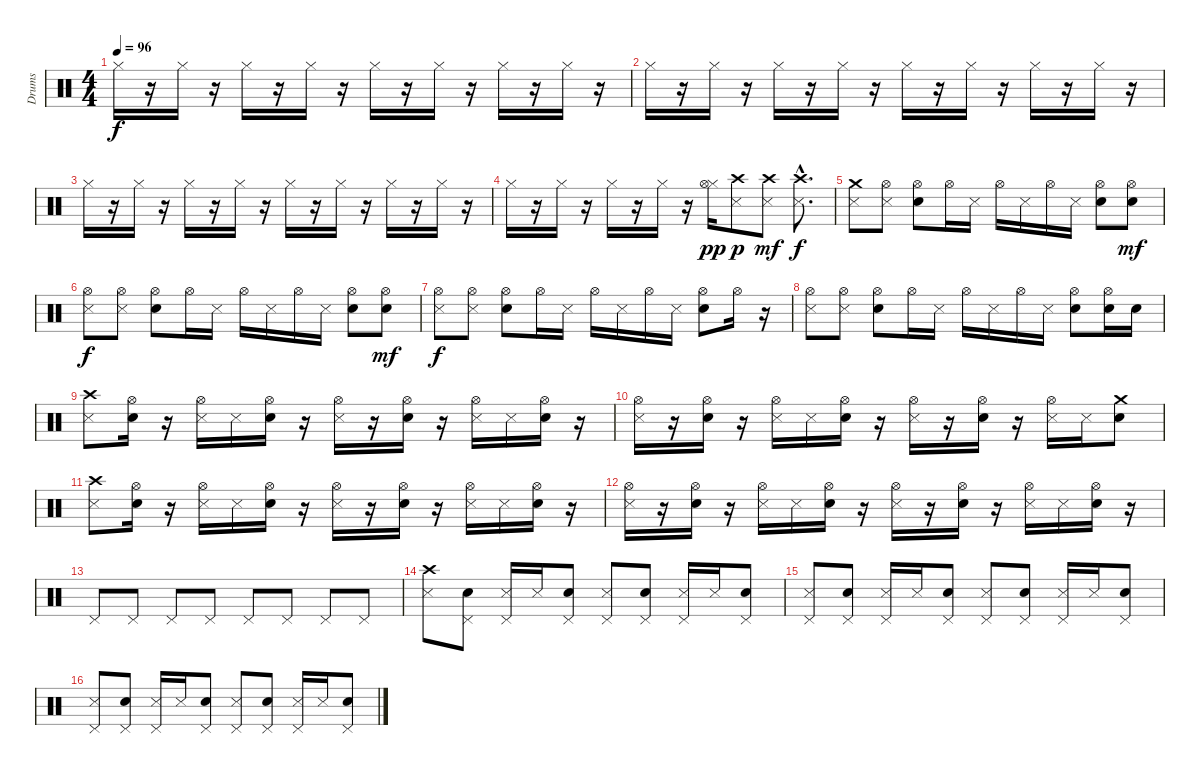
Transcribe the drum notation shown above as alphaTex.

\track ("Drums" "Drums") {instrument percussion}
\staff {score}
\articulation defaults
\ts (4 4)
\tempo 96
\clef neutral
\ks c "Hi-Hat (closed)".16{dy f}
r.16 "Hi-Hat (closed)".16 r.16 "Hi-Hat (closed)".16 r.16 "Hi-Hat (closed)".16 r.16 "Hi-Hat (closed)".16 r.16 "Hi-Hat (closed)".16 r.16 "Hi-Hat (closed)".16 r.16 "Hi-Hat (closed)".16 r.16 |
"Hi-Hat (closed)".16 r.16 "Hi-Hat (closed)".16 r.16 "Hi-Hat (closed)".16 r.16 "Hi-Hat (closed)".16 r.16 "Hi-Hat (closed)".16 r.16 "Hi-Hat (closed)".16 r.16 "Hi-Hat (closed)".16 r.16 "Hi-Hat (closed)".16 r.16 |
"Hi-Hat (closed)".16 r.16 "Hi-Hat (closed)".16 r.16 "Hi-Hat (closed)".16 r.16 "Hi-Hat (closed)".16 r.16 "Hi-Hat (closed)".16 r.16 "Hi-Hat (closed)".16 r.16 "Hi-Hat (closed)".16 r.16 "Hi-Hat (closed)".16 r.16 |
"Hi-Hat (closed)".16 r.16 "Hi-Hat (closed)".16 r.16 "Hi-Hat (closed)".16 r.16 "Hi-Hat (closed)".16 r.16 ("Hi-Hat (closed)" "Hi-Hat (open)").16{dy pp} ("Metronome (hit)" "Crash high (hit)").8{dy p} ("Metronome (hit)" "Crash high (hit)").8{dy mf} ("Metronome (hit)"{hac} "Crash high (hit)"{hac}).8{d dy f} |
("Metronome (hit)" "Crash medium (hit)").8 ("Metronome (hit)" "Hi-Hat (open)").8 ("Electric Snare (hit)" "Hi-Hat (open)").8 "Hi-Hat (open)".16 "Metronome (hit)".16 "Hi-Hat (open)".16 "Metronome (hit)".16 "Hi-Hat (open)".16 "Metronome (hit)".16 ("Electric Snare (hit)" "Hi-Hat (open)").8 ("Hi-Hat (open)" "Electric Snare (hit)").8{dy mf} |
("Metronome (hit)" "Hi-Hat (open)").8{dy f} ("Metronome (hit)" "Hi-Hat (open)").8 ("Electric Snare (hit)" "Hi-Hat (open)").8 "Hi-Hat (open)".16 "Metronome (hit)".16 "Hi-Hat (open)".16 "Metronome (hit)".16 "Hi-Hat (open)".16 "Metronome (hit)".16 ("Electric Snare (hit)" "Hi-Hat (open)").8 ("Electric Snare (hit)" "Hi-Hat (open)").8{dy mf} |
("Metronome (hit)" "Hi-Hat (open)").8{dy f} ("Hi-Hat (open)" "Metronome (hit)").8 ("Hi-Hat (open)" "Electric Snare (hit)").8 "Hi-Hat (open)".16 "Metronome (hit)".16 "Hi-Hat (open)".16 "Metronome (hit)".16 "Hi-Hat (open)".16 "Metronome (hit)".16 ("Electric Snare (hit)" "Hi-Hat (open)").8 "Hi-Hat (open)".16 r.16 |
("Hi-Hat (open)" "Metronome (hit)").8 ("Metronome (hit)" "Hi-Hat (open)").8 ("Electric Snare (hit)" "Hi-Hat (open)").8 "Hi-Hat (open)".16 "Metronome (hit)".16 "Hi-Hat (open)".16 "Metronome (hit)".16 "Hi-Hat (open)".16 "Metronome (hit)".16 ("Electric Snare (hit)" "Hi-Hat (open)").8 ("Electric Snare (hit)" "Hi-Hat (open)").16 "Electric Snare (hit)".16 |
("Metronome (hit)" "Crash high (hit)").8 ("Hi-Hat (open)" "Electric Snare (hit)").16 r.16 ("Metronome (hit)" "Hi-Hat (open)").16 "Metronome (hit)".16 ("Electric Snare (hit)" "Hi-Hat (open)").16 r.16 ("Metronome (hit)" "Hi-Hat (open)").16 r.16 ("Electric Snare (hit)" "Hi-Hat (open)").16 r.16 ("Metronome (hit)" "Hi-Hat (open)").16 "Metronome (hit)".16 ("Electric Snare (hit)" "Hi-Hat (open)").16 r.16 |
("Metronome (hit)" "Hi-Hat (open)").16 r.16 ("Electric Snare (hit)" "Hi-Hat (open)").16 r.16 ("Hi-Hat (open)" "Metronome (hit)").16 "Metronome (hit)".16 ("Hi-Hat (open)" "Electric Snare (hit)").16 r.16 ("Metronome (hit)" "Hi-Hat (open)").16 r.16 ("Hi-Hat (open)" "Electric Snare (hit)").16 r.16 ("Hi-Hat (open)" "Metronome (hit)").16 "Metronome (hit)".16 ("Electric Snare (hit)" "Crash medium (hit)").8 |
("Metronome (hit)" "Crash high (hit)").8 ("Hi-Hat (open)" "Electric Snare (hit)").16 r.16 ("Hi-Hat (open)" "Metronome (hit)").16 "Metronome (hit)".16 ("Hi-Hat (open)" "Electric Snare (hit)").16 r.16 ("Hi-Hat (open)" "Metronome (hit)").16 r.16 ("Hi-Hat (open)" "Electric Snare (hit)").16 r.16 ("Metronome (hit)" "Hi-Hat (open)").16 "Metronome (hit)".16 ("Hi-Hat (open)" "Electric Snare (hit)").16 r.16 |
("Hi-Hat (open)" "Metronome (hit)").16 r.16 ("Electric Snare (hit)" "Hi-Hat (open)").16 r.16 ("Metronome (hit)" "Hi-Hat (open)").16 "Metronome (hit)".16 ("Electric Snare (hit)" "Hi-Hat (open)").16 r.16 ("Hi-Hat (open)" "Metronome (hit)").16 r.16 ("Hi-Hat (open)" "Electric Snare (hit)").16 r.16 ("Hi-Hat (open)" "Metronome (hit)").16 "Metronome (hit)".16 ("Hi-Hat (open)" "Electric Snare (hit)").16 r.16 |
"Pedal Hi-Hat (hit)".8 "Pedal Hi-Hat (hit)".8 "Pedal Hi-Hat (hit)".8 "Pedal Hi-Hat (hit)".8 "Pedal Hi-Hat (hit)".8 "Pedal Hi-Hat (hit)".8 "Pedal Hi-Hat (hit)".8 "Pedal Hi-Hat (hit)".8 |
("Crash high (hit)" "Metronome (hit)").8 ("Electric Snare (hit)" "Pedal Hi-Hat (hit)").8 ("Metronome (hit)" "Pedal Hi-Hat (hit)").16 "Metronome (hit)".16 ("Pedal Hi-Hat (hit)" "Electric Snare (hit)").8 ("Metronome (hit)" "Pedal Hi-Hat (hit)").8 ("Pedal Hi-Hat (hit)" "Electric Snare (hit)").8 ("Metronome (hit)" "Pedal Hi-Hat (hit)").16 "Metronome (hit)".16 ("Pedal Hi-Hat (hit)" "Electric Snare (hit)").8 |
("Metronome (hit)" "Pedal Hi-Hat (hit)").8 ("Pedal Hi-Hat (hit)" "Electric Snare (hit)").8 ("Metronome (hit)" "Pedal Hi-Hat (hit)").16 "Metronome (hit)".16 ("Electric Snare (hit)" "Pedal Hi-Hat (hit)").8 ("Pedal Hi-Hat (hit)" "Metronome (hit)").8 ("Electric Snare (hit)" "Pedal Hi-Hat (hit)").8 ("Metronome (hit)" "Pedal Hi-Hat (hit)").16 "Metronome (hit)".16 ("Electric Snare (hit)" "Pedal Hi-Hat (hit)").8 |
("Metronome (hit)" "Pedal Hi-Hat (hit)").8 ("Pedal Hi-Hat (hit)" "Electric Snare (hit)").8 ("Metronome (hit)" "Pedal Hi-Hat (hit)").16 "Metronome (hit)".16 ("Electric Snare (hit)" "Pedal Hi-Hat (hit)").8 ("Pedal Hi-Hat (hit)" "Metronome (hit)").8 ("Electric Snare (hit)" "Pedal Hi-Hat (hit)").8 ("Pedal Hi-Hat (hit)" "Metronome (hit)").16 "Metronome (hit)".16 ("Electric Snare (hit)" "Pedal Hi-Hat (hit)").8
